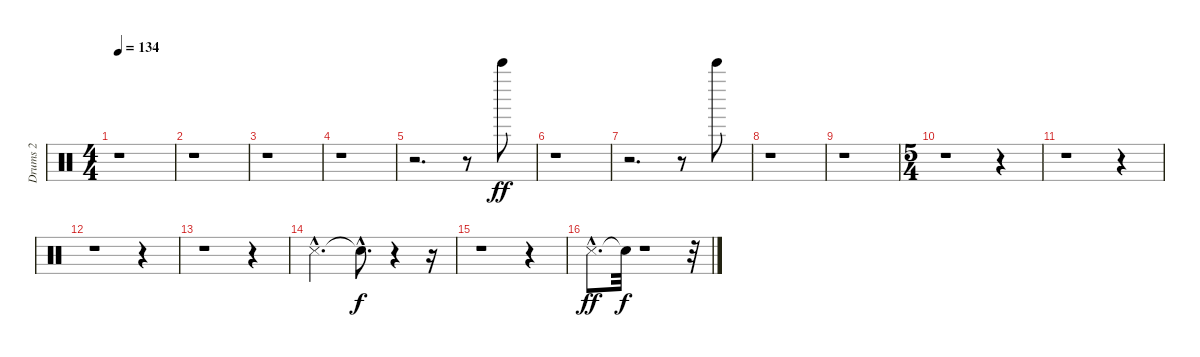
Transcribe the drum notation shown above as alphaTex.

\track ("Drums 2" "Drums 2") {instrument percussion}
\staff {score}
\articulation defaults
\ts (4 4)
\tempo 134
\clef neutral
\ks c
r.1{dy f} |
r.1 |
r.1 |
r.1 |
r.2{d} r.8 "Bell Tree (hit)".8{dy ff} |
r.1 |
r.2{d} r.8 "Bell Tree (hit)".8 |
r.1 |
r.1 |
\ts (5 4)
r.1 r.4 |
r.1 r.4 |
r.1 r.4 |
r.1 r.4 |
"Metronome (hit)"{hac}.2{d} "Snare (hit)"{hac t}.8{d dy f} r.4 r.16 |
r.1 r.4 |
"Metronome (hit)"{hac}.8{d dy ff} "Snare (hit)"{t}.32{dy f} r.1 r.32
